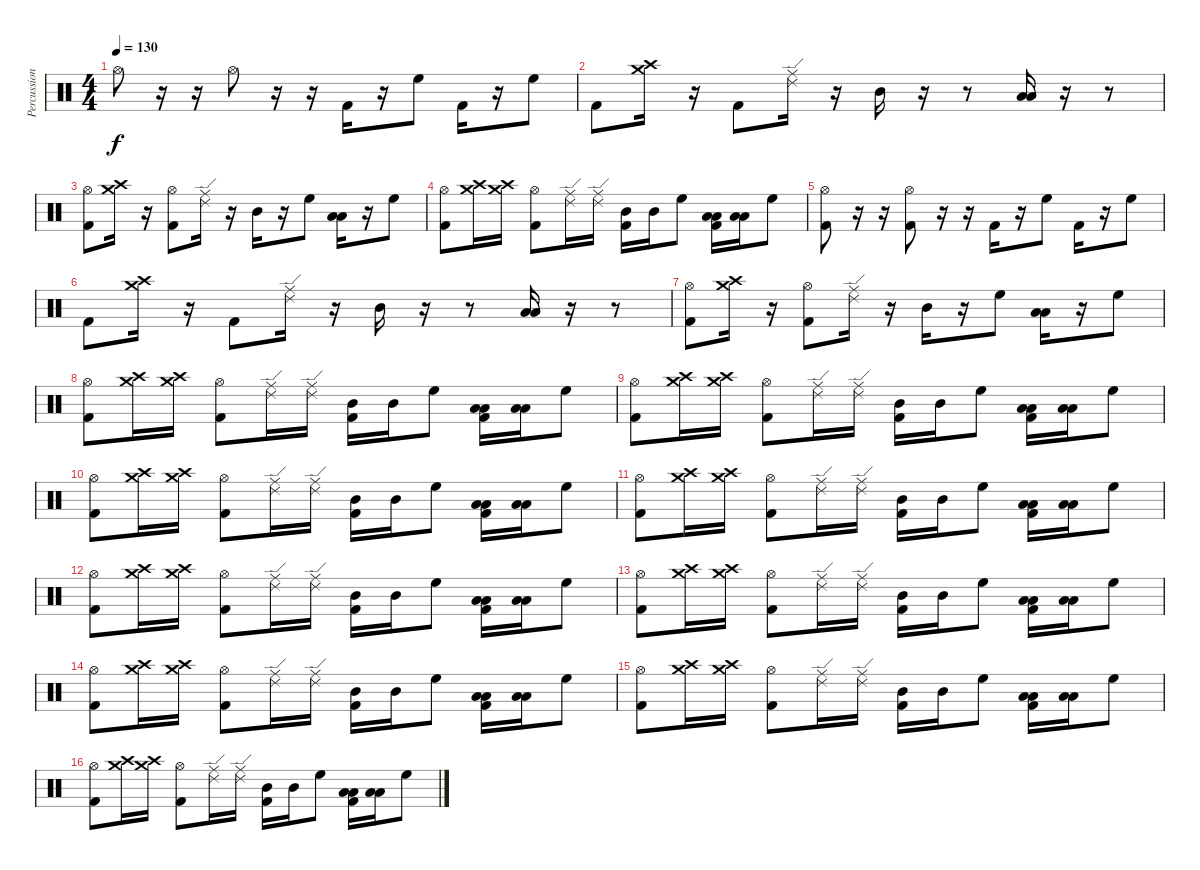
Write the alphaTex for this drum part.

\track ("Percussions" "Percussion") {instrument percussion}
\staff {score}
\articulation defaults
\ts (4 4)
\tempo 130
\clef neutral
\ks c "Hi-Hat (open)".8{dy f}
r.16 r.16 "Hi-Hat (open)".8 r.16 r.16 "Kick (hit) 2".16 r.16 "High Floor Tom (hit)".8 "Kick (hit) 2".16 r.16 "High Floor Tom (hit)".8 |
"Kick (hit) 2".8 ("Crash high (hit)" "Crash medium (hit)").16 r.16 "Kick (hit) 2".8 ("Ride (middle)" "Ride (edge) 2").16 r.16 "Mid Tom (hit)".16 r.16 r.8 ("Low Tom (hit)" "Low Floor Tom (hit)").16 r.16 r.8 |
("Hi-Hat (open)" "Kick (hit) 2").8 ("Crash high (hit)" "Crash medium (hit)").16 r.16 ("Hi-Hat (open)" "Kick (hit) 2").8 ("Ride (middle)" "Ride (edge) 2").16 r.16 "Mid Tom (hit)".16 r.16 "High Floor Tom (hit)".8 ("Low Tom (hit)" "Low Floor Tom (hit)").16 r.16 "High Floor Tom (hit)".8 |
("Hi-Hat (open)" "Kick (hit) 2").8 ("Crash high (hit)" "Crash medium (hit)").16 ("Crash high (hit)" "Crash medium (hit)").16 ("Hi-Hat (open)" "Kick (hit) 2").8 ("Ride (middle)" "Ride (edge) 2").16 ("Ride (middle)" "Ride (edge) 2").16 ("Mid Tom (hit)" "Kick (hit) 2").16 "Mid Tom (hit)".16 "High Floor Tom (hit)".8 ("Low Tom (hit)" "Low Floor Tom (hit)" "Kick (hit) 2").16 ("Low Tom (hit)" "Low Floor Tom (hit)").16 "High Floor Tom (hit)".8 |
("Hi-Hat (open)" "Kick (hit) 2").8 r.16 r.16 ("Hi-Hat (open)" "Kick (hit) 2").8 r.16 r.16 "Kick (hit) 2".16 r.16 "High Floor Tom (hit)".8 "Kick (hit) 2".16 r.16 "High Floor Tom (hit)".8 |
"Kick (hit) 2".8 ("Crash high (hit)" "Crash medium (hit)").16 r.16 "Kick (hit) 2".8 ("Ride (middle)" "Ride (edge) 2").16 r.16 "Mid Tom (hit)".16 r.16 r.8 ("Low Tom (hit)" "Low Floor Tom (hit)").16 r.16 r.8 |
("Hi-Hat (open)" "Kick (hit) 2").8 ("Crash high (hit)" "Crash medium (hit)").16 r.16 ("Hi-Hat (open)" "Kick (hit) 2").8 ("Ride (middle)" "Ride (edge) 2").16 r.16 "Mid Tom (hit)".16 r.16 "High Floor Tom (hit)".8 ("Low Tom (hit)" "Low Floor Tom (hit)").16 r.16 "High Floor Tom (hit)".8 |
("Hi-Hat (open)" "Kick (hit) 2").8 ("Crash high (hit)" "Crash medium (hit)").16 ("Crash high (hit)" "Crash medium (hit)").16 ("Hi-Hat (open)" "Kick (hit) 2").8 ("Ride (middle)" "Ride (edge) 2").16 ("Ride (middle)" "Ride (edge) 2").16 ("Mid Tom (hit)" "Kick (hit) 2").16 "Mid Tom (hit)".16 "High Floor Tom (hit)".8 ("Low Tom (hit)" "Low Floor Tom (hit)" "Kick (hit) 2").16 ("Low Tom (hit)" "Low Floor Tom (hit)").16 "High Floor Tom (hit)".8 |
("Hi-Hat (open)" "Kick (hit) 2").8 ("Crash high (hit)" "Crash medium (hit)").16 ("Crash high (hit)" "Crash medium (hit)").16 ("Hi-Hat (open)" "Kick (hit) 2").8 ("Ride (middle)" "Ride (edge) 2").16 ("Ride (middle)" "Ride (edge) 2").16 ("Mid Tom (hit)" "Kick (hit) 2").16 "Mid Tom (hit)".16 "High Floor Tom (hit)".8 ("Low Tom (hit)" "Low Floor Tom (hit)" "Kick (hit) 2").16 ("Low Tom (hit)" "Low Floor Tom (hit)").16 "High Floor Tom (hit)".8 |
("Hi-Hat (open)" "Kick (hit) 2").8 ("Crash high (hit)" "Crash medium (hit)").16 ("Crash high (hit)" "Crash medium (hit)").16 ("Hi-Hat (open)" "Kick (hit) 2").8 ("Ride (middle)" "Ride (edge) 2").16 ("Ride (middle)" "Ride (edge) 2").16 ("Mid Tom (hit)" "Kick (hit) 2").16 "Mid Tom (hit)".16 "High Floor Tom (hit)".8 ("Low Tom (hit)" "Low Floor Tom (hit)" "Kick (hit) 2").16 ("Low Tom (hit)" "Low Floor Tom (hit)").16 "High Floor Tom (hit)".8 |
("Hi-Hat (open)" "Kick (hit) 2").8 ("Crash high (hit)" "Crash medium (hit)").16 ("Crash high (hit)" "Crash medium (hit)").16 ("Hi-Hat (open)" "Kick (hit) 2").8 ("Ride (middle)" "Ride (edge) 2").16 ("Ride (middle)" "Ride (edge) 2").16 ("Mid Tom (hit)" "Kick (hit) 2").16 "Mid Tom (hit)".16 "High Floor Tom (hit)".8 ("Low Tom (hit)" "Low Floor Tom (hit)" "Kick (hit) 2").16 ("Low Tom (hit)" "Low Floor Tom (hit)").16 "High Floor Tom (hit)".8 |
("Hi-Hat (open)" "Kick (hit) 2").8 ("Crash high (hit)" "Crash medium (hit)").16 ("Crash high (hit)" "Crash medium (hit)").16 ("Hi-Hat (open)" "Kick (hit) 2").8 ("Ride (middle)" "Ride (edge) 2").16 ("Ride (middle)" "Ride (edge) 2").16 ("Mid Tom (hit)" "Kick (hit) 2").16 "Mid Tom (hit)".16 "High Floor Tom (hit)".8 ("Low Tom (hit)" "Low Floor Tom (hit)" "Kick (hit) 2").16 ("Low Tom (hit)" "Low Floor Tom (hit)").16 "High Floor Tom (hit)".8 |
("Hi-Hat (open)" "Kick (hit) 2").8 ("Crash high (hit)" "Crash medium (hit)").16 ("Crash high (hit)" "Crash medium (hit)").16 ("Hi-Hat (open)" "Kick (hit) 2").8 ("Ride (middle)" "Ride (edge) 2").16 ("Ride (middle)" "Ride (edge) 2").16 ("Mid Tom (hit)" "Kick (hit) 2").16 "Mid Tom (hit)".16 "High Floor Tom (hit)".8 ("Low Tom (hit)" "Low Floor Tom (hit)" "Kick (hit) 2").16 ("Low Tom (hit)" "Low Floor Tom (hit)").16 "High Floor Tom (hit)".8 |
("Hi-Hat (open)" "Kick (hit) 2").8 ("Crash high (hit)" "Crash medium (hit)").16 ("Crash high (hit)" "Crash medium (hit)").16 ("Hi-Hat (open)" "Kick (hit) 2").8 ("Ride (middle)" "Ride (edge) 2").16 ("Ride (middle)" "Ride (edge) 2").16 ("Mid Tom (hit)" "Kick (hit) 2").16 "Mid Tom (hit)".16 "High Floor Tom (hit)".8 ("Low Tom (hit)" "Low Floor Tom (hit)" "Kick (hit) 2").16 ("Low Tom (hit)" "Low Floor Tom (hit)").16 "High Floor Tom (hit)".8 |
("Hi-Hat (open)" "Kick (hit) 2").8 ("Crash high (hit)" "Crash medium (hit)").16 ("Crash high (hit)" "Crash medium (hit)").16 ("Hi-Hat (open)" "Kick (hit) 2").8 ("Ride (middle)" "Ride (edge) 2").16 ("Ride (middle)" "Ride (edge) 2").16 ("Mid Tom (hit)" "Kick (hit) 2").16 "Mid Tom (hit)".16 "High Floor Tom (hit)".8 ("Low Tom (hit)" "Low Floor Tom (hit)" "Kick (hit) 2").16 ("Low Tom (hit)" "Low Floor Tom (hit)").16 "High Floor Tom (hit)".8 |
("Hi-Hat (open)" "Kick (hit) 2").8 ("Crash high (hit)" "Crash medium (hit)").16 ("Crash high (hit)" "Crash medium (hit)").16 ("Hi-Hat (open)" "Kick (hit) 2").8 ("Ride (middle)" "Ride (edge) 2").16 ("Ride (middle)" "Ride (edge) 2").16 ("Mid Tom (hit)" "Kick (hit) 2").16 "Mid Tom (hit)".16 "High Floor Tom (hit)".8 ("Low Tom (hit)" "Low Floor Tom (hit)" "Kick (hit) 2").16 ("Low Tom (hit)" "Low Floor Tom (hit)").16 "High Floor Tom (hit)".8
